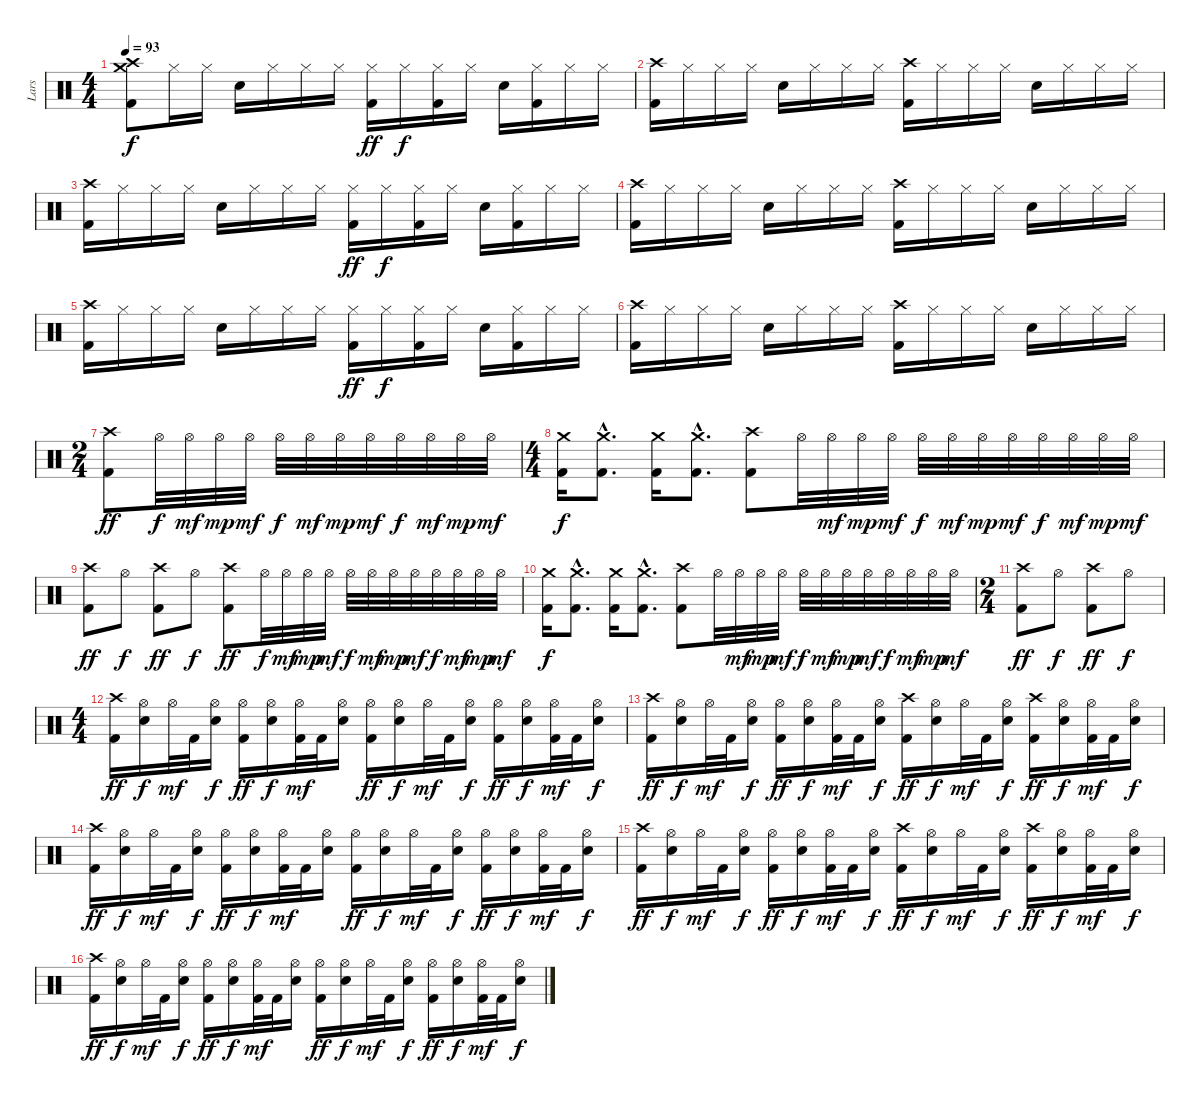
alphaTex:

\track ("Lars" "Lars") {instrument percussion}
\staff {score}
\articulation defaults
\ts (4 4)
\tempo 93
\clef neutral
\ks c
("Crash high (hit)" "Crash medium (hit)" "Kick (hit) 2").8{dy f} "Hi-Hat (closed)".16 "Hi-Hat (closed)".16 "Snare (hit) 2".16 "Hi-Hat (closed)".16 "Hi-Hat (closed)".16 "Hi-Hat (closed)".16 ("Hi-Hat (closed)" "Kick (hit) 2").16{dy ff} "Hi-Hat (closed)".16{dy f} ("Hi-Hat (closed)" "Kick (hit) 2").16 "Hi-Hat (closed)".16 "Snare (hit) 2".16 ("Hi-Hat (closed)" "Kick (hit) 2").16 "Hi-Hat (closed)".16 "Hi-Hat (closed)".16 |
("Crash high (hit)" "Kick (hit) 2").16 "Hi-Hat (closed)".16 "Hi-Hat (closed)".16 "Hi-Hat (closed)".16 "Snare (hit) 2".16 "Hi-Hat (closed)".16 "Hi-Hat (closed)".16 "Hi-Hat (closed)".16 ("Crash high (hit)" "Kick (hit) 2").16 "Hi-Hat (closed)".16 "Hi-Hat (closed)".16 "Hi-Hat (closed)".16 "Snare (hit) 2".16 "Hi-Hat (closed)".16 "Hi-Hat (closed)".16 "Hi-Hat (closed)".16 |
("Crash high (hit)" "Kick (hit) 2").16 "Hi-Hat (closed)".16 "Hi-Hat (closed)".16 "Hi-Hat (closed)".16 "Snare (hit) 2".16 "Hi-Hat (closed)".16 "Hi-Hat (closed)".16 "Hi-Hat (closed)".16 ("Hi-Hat (closed)" "Kick (hit) 2").16{dy ff} "Hi-Hat (closed)".16{dy f} ("Hi-Hat (closed)" "Kick (hit) 2").16 "Hi-Hat (closed)".16 "Snare (hit) 2".16 ("Hi-Hat (closed)" "Kick (hit) 2").16 "Hi-Hat (closed)".16 "Hi-Hat (closed)".16 |
("Crash high (hit)" "Kick (hit) 2").16 "Hi-Hat (closed)".16 "Hi-Hat (closed)".16 "Hi-Hat (closed)".16 "Snare (hit) 2".16 "Hi-Hat (closed)".16 "Hi-Hat (closed)".16 "Hi-Hat (closed)".16 ("Crash high (hit)" "Kick (hit) 2").16 "Hi-Hat (closed)".16 "Hi-Hat (closed)".16 "Hi-Hat (closed)".16 "Snare (hit) 2".16 "Hi-Hat (closed)".16 "Hi-Hat (closed)".16 "Hi-Hat (closed)".16 |
("Crash high (hit)" "Kick (hit) 2").16 "Hi-Hat (closed)".16 "Hi-Hat (closed)".16 "Hi-Hat (closed)".16 "Snare (hit) 2".16 "Hi-Hat (closed)".16 "Hi-Hat (closed)".16 "Hi-Hat (closed)".16 ("Hi-Hat (closed)" "Kick (hit) 2").16{dy ff} "Hi-Hat (closed)".16{dy f} ("Hi-Hat (closed)" "Kick (hit) 2").16 "Hi-Hat (closed)".16 "Snare (hit) 2".16 ("Hi-Hat (closed)" "Kick (hit) 2").16 "Hi-Hat (closed)".16 "Hi-Hat (closed)".16 |
("Crash high (hit)" "Kick (hit) 2").16 "Hi-Hat (closed)".16 "Hi-Hat (closed)".16 "Hi-Hat (closed)".16 "Snare (hit) 2".16 "Hi-Hat (closed)".16 "Hi-Hat (closed)".16 "Hi-Hat (closed)".16 ("Crash high (hit)" "Kick (hit) 2").16 "Hi-Hat (closed)".16 "Hi-Hat (closed)".16 "Hi-Hat (closed)".16 "Snare (hit) 2".16 "Hi-Hat (closed)".16 "Hi-Hat (closed)".16 "Hi-Hat (closed)".16 |
\ts (2 4)
("Crash high (hit)" "Kick (hit) 2").8{dy ff} "Hi-Hat (open)".32{dy f} "Hi-Hat (open)".32{dy mf} "Hi-Hat (open)".32{dy mp} "Hi-Hat (open)".32{dy mf} "Hi-Hat (open)".32{dy f} "Hi-Hat (open)".32{dy mf} "Hi-Hat (open)".32{dy mp} "Hi-Hat (open)".32{dy mf} "Hi-Hat (open)".32{dy f} "Hi-Hat (open)".32{dy mf} "Hi-Hat (open)".32{dy mp} "Hi-Hat (open)".32{dy mf} |
\ts (4 4)
("Crash medium (hit)" "Kick (hit) 2").16{dy f} ("Crash medium (hit)"{hac} "Kick (hit) 2"{hac}).8{d} ("Crash medium (hit)" "Kick (hit) 2").16 ("Crash medium (hit)"{hac} "Kick (hit) 2"{hac}).8{d} ("Crash high (hit)" "Kick (hit) 2").8 "Hi-Hat (open)".32 "Hi-Hat (open)".32{dy mf} "Hi-Hat (open)".32{dy mp} "Hi-Hat (open)".32{dy mf} "Hi-Hat (open)".32{dy f} "Hi-Hat (open)".32{dy mf} "Hi-Hat (open)".32{dy mp} "Hi-Hat (open)".32{dy mf} "Hi-Hat (open)".32{dy f} "Hi-Hat (open)".32{dy mf} "Hi-Hat (open)".32{dy mp} "Hi-Hat (open)".32{dy mf} |
("Crash high (hit)" "Kick (hit) 2").8{dy ff} "Hi-Hat (open)".8{dy f} ("Crash high (hit)" "Kick (hit) 2").8{dy ff} "Hi-Hat (open)".8{dy f} ("Crash high (hit)" "Kick (hit) 2").8{dy ff} "Hi-Hat (open)".32{dy f} "Hi-Hat (open)".32{dy mf} "Hi-Hat (open)".32{dy mp} "Hi-Hat (open)".32{dy mf} "Hi-Hat (open)".32{dy f} "Hi-Hat (open)".32{dy mf} "Hi-Hat (open)".32{dy mp} "Hi-Hat (open)".32{dy mf} "Hi-Hat (open)".32{dy f} "Hi-Hat (open)".32{dy mf} "Hi-Hat (open)".32{dy mp} "Hi-Hat (open)".32{dy mf} |
("Crash medium (hit)" "Kick (hit) 2").16{dy f} ("Crash medium (hit)"{hac} "Kick (hit) 2"{hac}).8{d} ("Crash medium (hit)" "Kick (hit) 2").16 ("Crash medium (hit)"{hac} "Kick (hit) 2"{hac}).8{d} ("Crash high (hit)" "Kick (hit) 2").8 "Hi-Hat (open)".32 "Hi-Hat (open)".32{dy mf} "Hi-Hat (open)".32{dy mp} "Hi-Hat (open)".32{dy mf} "Hi-Hat (open)".32{dy f} "Hi-Hat (open)".32{dy mf} "Hi-Hat (open)".32{dy mp} "Hi-Hat (open)".32{dy mf} "Hi-Hat (open)".32{dy f} "Hi-Hat (open)".32{dy mf} "Hi-Hat (open)".32{dy mp} "Hi-Hat (open)".32{dy mf} |
\ts (2 4)
("Crash high (hit)" "Kick (hit) 2").8{dy ff} "Hi-Hat (open)".8{dy f} ("Crash high (hit)" "Kick (hit) 2").8{dy ff} "Hi-Hat (open)".8{dy f} |
\ts (4 4)
("Crash high (hit)" "Kick (hit) 2").16{dy ff} ("Hi-Hat (open)" "Snare (hit) 2").16{dy f} "Hi-Hat (open)".32{dy mf} "Kick (hit) 2".32 ("Hi-Hat (open)" "Snare (hit) 2").16{dy f} ("Hi-Hat (open)" "Kick (hit) 2").16{dy ff} ("Hi-Hat (open)" "Snare (hit) 2").16{dy f} ("Hi-Hat (open)" "Kick (hit) 2").32{dy mf} "Kick (hit) 2".32 ("Hi-Hat (open)" "Snare (hit) 2").16 ("Hi-Hat (open)" "Kick (hit) 2").16{dy ff} ("Hi-Hat (open)" "Snare (hit) 2").16{dy f} "Hi-Hat (open)".32{dy mf} "Kick (hit) 2".32 ("Hi-Hat (open)" "Snare (hit) 2").16{dy f} ("Hi-Hat (open)" "Kick (hit) 2").16{dy ff} ("Hi-Hat (open)" "Snare (hit) 2").16{dy f} ("Hi-Hat (open)" "Kick (hit) 2").32{dy mf} "Kick (hit) 2".32 ("Hi-Hat (open)" "Snare (hit) 2").16{dy f} |
("Crash high (hit)" "Kick (hit) 2").16{dy ff} ("Hi-Hat (open)" "Snare (hit) 2").16{dy f} "Hi-Hat (open)".32{dy mf} "Kick (hit) 2".32 ("Hi-Hat (open)" "Snare (hit) 2").16{dy f} ("Hi-Hat (open)" "Kick (hit) 2").16{dy ff} ("Hi-Hat (open)" "Snare (hit) 2").16{dy f} ("Hi-Hat (open)" "Kick (hit) 2").32{dy mf} "Kick (hit) 2".32 ("Hi-Hat (open)" "Snare (hit) 2").16{dy f} ("Crash high (hit)" "Kick (hit) 2").16{dy ff} ("Hi-Hat (open)" "Snare (hit) 2").16{dy f} "Hi-Hat (open)".32{dy mf} "Kick (hit) 2".32 ("Hi-Hat (open)" "Snare (hit) 2").16{dy f} ("Crash high (hit)" "Kick (hit) 2").16{dy ff} ("Hi-Hat (open)" "Snare (hit) 2").16{dy f} ("Hi-Hat (open)" "Kick (hit) 2").32{dy mf} "Kick (hit) 2".32 ("Hi-Hat (open)" "Snare (hit) 2").16{dy f} |
("Crash high (hit)" "Kick (hit) 2").16{dy ff} ("Hi-Hat (open)" "Snare (hit) 2").16{dy f} "Hi-Hat (open)".32{dy mf} "Kick (hit) 2".32 ("Hi-Hat (open)" "Snare (hit) 2").16{dy f} ("Hi-Hat (open)" "Kick (hit) 2").16{dy ff} ("Hi-Hat (open)" "Snare (hit) 2").16{dy f} ("Hi-Hat (open)" "Kick (hit) 2").32{dy mf} "Kick (hit) 2".32 ("Hi-Hat (open)" "Snare (hit) 2").16 ("Hi-Hat (open)" "Kick (hit) 2").16{dy ff} ("Hi-Hat (open)" "Snare (hit) 2").16{dy f} "Hi-Hat (open)".32{dy mf} "Kick (hit) 2".32 ("Hi-Hat (open)" "Snare (hit) 2").16{dy f} ("Hi-Hat (open)" "Kick (hit) 2").16{dy ff} ("Hi-Hat (open)" "Snare (hit) 2").16{dy f} ("Hi-Hat (open)" "Kick (hit) 2").32{dy mf} "Kick (hit) 2".32 ("Hi-Hat (open)" "Snare (hit) 2").16{dy f} |
("Crash high (hit)" "Kick (hit) 2").16{dy ff} ("Hi-Hat (open)" "Snare (hit) 2").16{dy f} "Hi-Hat (open)".32{dy mf} "Kick (hit) 2".32 ("Hi-Hat (open)" "Snare (hit) 2").16{dy f} ("Hi-Hat (open)" "Kick (hit) 2").16{dy ff} ("Hi-Hat (open)" "Snare (hit) 2").16{dy f} ("Hi-Hat (open)" "Kick (hit) 2").32{dy mf} "Kick (hit) 2".32 ("Hi-Hat (open)" "Snare (hit) 2").16{dy f} ("Crash high (hit)" "Kick (hit) 2").16{dy ff} ("Hi-Hat (open)" "Snare (hit) 2").16{dy f} "Hi-Hat (open)".32{dy mf} "Kick (hit) 2".32 ("Hi-Hat (open)" "Snare (hit) 2").16{dy f} ("Crash high (hit)" "Kick (hit) 2").16{dy ff} ("Hi-Hat (open)" "Snare (hit) 2").16{dy f} ("Hi-Hat (open)" "Kick (hit) 2").32{dy mf} "Kick (hit) 2".32 ("Hi-Hat (open)" "Snare (hit) 2").16{dy f} |
("Crash high (hit)" "Kick (hit) 2").16{dy ff} ("Hi-Hat (open)" "Snare (hit) 2").16{dy f} "Hi-Hat (open)".32{dy mf} "Kick (hit) 2".32 ("Hi-Hat (open)" "Snare (hit) 2").16{dy f} ("Hi-Hat (open)" "Kick (hit) 2").16{dy ff} ("Hi-Hat (open)" "Snare (hit) 2").16{dy f} ("Hi-Hat (open)" "Kick (hit) 2").32{dy mf} "Kick (hit) 2".32 ("Hi-Hat (open)" "Snare (hit) 2").16 ("Hi-Hat (open)" "Kick (hit) 2").16{dy ff} ("Hi-Hat (open)" "Snare (hit) 2").16{dy f} "Hi-Hat (open)".32{dy mf} "Kick (hit) 2".32 ("Hi-Hat (open)" "Snare (hit) 2").16{dy f} ("Hi-Hat (open)" "Kick (hit) 2").16{dy ff} ("Hi-Hat (open)" "Snare (hit) 2").16{dy f} ("Hi-Hat (open)" "Kick (hit) 2").32{dy mf} "Kick (hit) 2".32 ("Hi-Hat (open)" "Snare (hit) 2").16{dy f}
